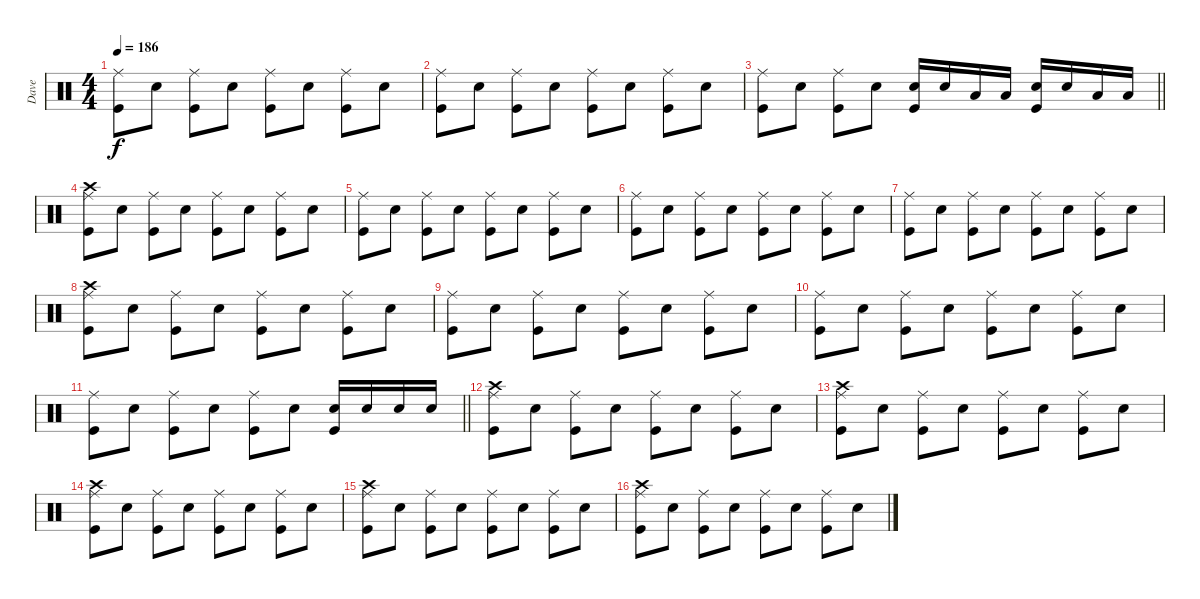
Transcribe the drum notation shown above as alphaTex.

\track ("Dave" "Dave") {instrument percussion}
\staff {score}
\articulation defaults
\ts (4 4)
\tempo 186
\clef neutral
\ks c
("Ride (middle)" "Kick (hit)").8{dy f} "Snare (hit) 2".8 ("Ride (middle)" "Kick (hit)").8 "Snare (hit) 2".8 ("Ride (middle)" "Kick (hit)").8 "Snare (hit) 2".8 ("Ride (middle)" "Kick (hit)").8 "Snare (hit) 2".8 |
("Ride (middle)" "Kick (hit)").8 "Snare (hit) 2".8 ("Ride (middle)" "Kick (hit)").8 "Snare (hit) 2".8 ("Ride (middle)" "Kick (hit)").8 "Snare (hit) 2".8 ("Ride (middle)" "Kick (hit)").8 "Snare (hit) 2".8 |
\barLineRight lightlight
("Ride (middle)" "Kick (hit)").8 "Snare (hit) 2".8 ("Ride (middle)" "Kick (hit)").8 "Snare (hit) 2".8 ("Kick (hit)" "Snare (hit) 2").16 "Snare (hit) 2".16 "Low Tom (hit)".16 "Low Tom (hit)".16 ("Kick (hit)" "Snare (hit) 2").16 "Snare (hit) 2".16 "Low Tom (hit)".16 "Low Tom (hit)".16 |
("Crash high (hit)" "Ride (middle)" "Kick (hit)").8 "Snare (hit) 2".8 ("Ride (middle)" "Kick (hit)").8 "Snare (hit) 2".8 ("Ride (middle)" "Kick (hit)").8 "Snare (hit) 2".8 ("Ride (middle)" "Kick (hit)").8 "Snare (hit) 2".8 |
("Ride (middle)" "Kick (hit)").8 "Snare (hit) 2".8 ("Ride (middle)" "Kick (hit)").8 "Snare (hit) 2".8 ("Ride (middle)" "Kick (hit)").8 "Snare (hit) 2".8 ("Ride (middle)" "Kick (hit)").8 "Snare (hit) 2".8 |
("Ride (middle)" "Kick (hit)").8 "Snare (hit) 2".8 ("Ride (middle)" "Kick (hit)").8 "Snare (hit) 2".8 ("Ride (middle)" "Kick (hit)").8 "Snare (hit) 2".8 ("Ride (middle)" "Kick (hit)").8 "Snare (hit) 2".8 |
("Ride (middle)" "Kick (hit)").8 "Snare (hit) 2".8 ("Ride (middle)" "Kick (hit)").8 "Snare (hit) 2".8 ("Ride (middle)" "Kick (hit)").8 "Snare (hit) 2".8 ("Ride (middle)" "Kick (hit)").8 "Snare (hit) 2".8 |
("Crash high (hit)" "Ride (middle)" "Kick (hit)").8 "Snare (hit) 2".8 ("Ride (middle)" "Kick (hit)").8 "Snare (hit) 2".8 ("Ride (middle)" "Kick (hit)").8 "Snare (hit) 2".8 ("Ride (middle)" "Kick (hit)").8 "Snare (hit) 2".8 |
("Ride (middle)" "Kick (hit)").8 "Snare (hit) 2".8 ("Ride (middle)" "Kick (hit)").8 "Snare (hit) 2".8 ("Ride (middle)" "Kick (hit)").8 "Snare (hit) 2".8 ("Ride (middle)" "Kick (hit)").8 "Snare (hit) 2".8 |
("Ride (middle)" "Kick (hit)").8 "Snare (hit) 2".8 ("Ride (middle)" "Kick (hit)").8 "Snare (hit) 2".8 ("Ride (middle)" "Kick (hit)").8 "Snare (hit) 2".8 ("Ride (middle)" "Kick (hit)").8 "Snare (hit) 2".8 |
\barLineRight lightlight
("Ride (middle)" "Kick (hit)").8 "Snare (hit) 2".8 ("Ride (middle)" "Kick (hit)").8 "Snare (hit) 2".8 ("Ride (middle)" "Kick (hit)").8 "Snare (hit) 2".8 ("Snare (hit) 2" "Kick (hit)").16 "Snare (hit) 2".16 "Snare (hit) 2".16 "Snare (hit) 2".16 |
("Crash high (hit)" "Ride (middle)" "Kick (hit)").8 "Snare (hit) 2".8 ("Ride (middle)" "Kick (hit)").8 "Snare (hit) 2".8 ("Ride (middle)" "Kick (hit)").8 "Snare (hit) 2".8 ("Ride (middle)" "Kick (hit)").8 "Snare (hit) 2".8 |
("Crash high (hit)" "Ride (middle)" "Kick (hit)").8 "Snare (hit) 2".8 ("Ride (middle)" "Kick (hit)").8 "Snare (hit) 2".8 ("Ride (middle)" "Kick (hit)").8 "Snare (hit) 2".8 ("Ride (middle)" "Kick (hit)").8 "Snare (hit) 2".8 |
("Crash high (hit)" "Ride (middle)" "Kick (hit)").8 "Snare (hit) 2".8 ("Ride (middle)" "Kick (hit)").8 "Snare (hit) 2".8 ("Ride (middle)" "Kick (hit)").8 "Snare (hit) 2".8 ("Ride (middle)" "Kick (hit)").8 "Snare (hit) 2".8 |
("Crash high (hit)" "Ride (middle)" "Kick (hit)").8 "Snare (hit) 2".8 ("Ride (middle)" "Kick (hit)").8 "Snare (hit) 2".8 ("Ride (middle)" "Kick (hit)").8 "Snare (hit) 2".8 ("Ride (middle)" "Kick (hit)").8 "Snare (hit) 2".8 |
("Crash high (hit)" "Ride (middle)" "Kick (hit)").8 "Snare (hit) 2".8 ("Ride (middle)" "Kick (hit)").8 "Snare (hit) 2".8 ("Ride (middle)" "Kick (hit)").8 "Snare (hit) 2".8 ("Ride (middle)" "Kick (hit)").8 "Snare (hit) 2".8
